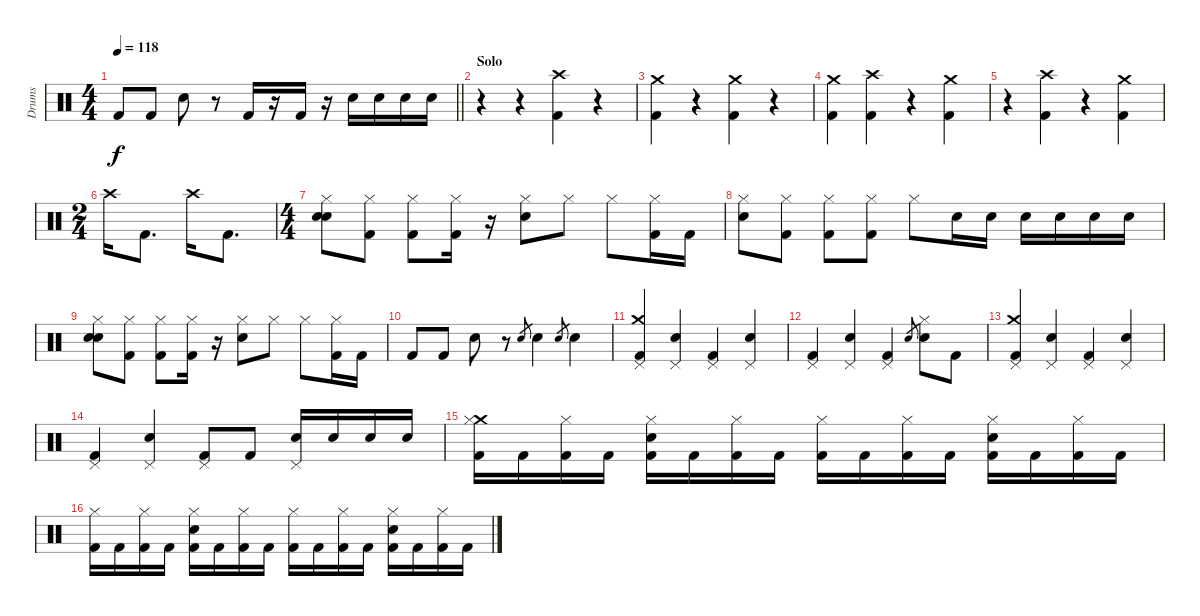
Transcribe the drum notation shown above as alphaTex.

\track ("Drums" "Drums") {instrument percussion}
\staff {score}
\articulation defaults
\ts (4 4)
\tempo 118
\clef neutral
\barLineRight lightlight
\ks c "Kick (hit) 2".8{dy f} "Kick (hit) 2".8 "Snare (hit) 2".8
r.8 "Kick (hit) 2".16 r.16 "Kick (hit) 2".16 r.16 "Snare (hit) 2".16 "Snare (hit) 2".16 "Snare (hit) 2".16 "Snare (hit) 2".16 |
\section ("" "Solo")
r.4 r.4 ("Crash high (hit)" "Kick (hit) 2").4 r.4 |
("Crash medium (hit)" "Kick (hit) 2").4 r.4 ("Crash medium (hit)" "Kick (hit) 2").4 r.4 |
("Crash medium (hit)" "Kick (hit) 2").4 ("Crash high (hit)" "Kick (hit) 2").4 r.4 ("Crash medium (hit)" "Kick (hit) 2").4 |
r.4 ("Crash high (hit)" "Kick (hit) 2").4 r.4 ("Crash medium (hit)" "Kick (hit) 2").4 |
\ts (2 4)
"Crash high (hit)".16 "Kick (hit) 2".8{d} "Crash high (hit)".16 "Kick (hit) 2".8{d} |
\ts (4 4)
("Snare (hit) 2" "Hi-Hat (closed)" "Snare (hit) 2").8 ("Hi-Hat (closed)" "Kick (hit) 2").8 ("Hi-Hat (closed)" "Kick (hit) 2").8 ("Hi-Hat (closed)" "Kick (hit) 2").16 r.16 ("Hi-Hat (closed)" "Snare (hit) 2").8 "Hi-Hat (closed)".8 "Hi-Hat (closed)".8 ("Hi-Hat (closed)" "Kick (hit) 2").16 "Kick (hit) 2".16 |
("Hi-Hat (closed)" "Snare (hit) 2").8 ("Hi-Hat (closed)" "Kick (hit) 2").8 ("Hi-Hat (closed)" "Kick (hit) 2").8 ("Hi-Hat (closed)" "Kick (hit) 2").8 "Hi-Hat (closed)".8 "Snare (hit) 2".16 "Snare (hit) 2".16 "Snare (hit) 2".16 "Snare (hit) 2".16 "Snare (hit) 2".16 "Snare (hit) 2".16 |
("Snare (hit) 2" "Hi-Hat (closed)" "Snare (hit) 2").8 ("Hi-Hat (closed)" "Kick (hit) 2").8 ("Hi-Hat (closed)" "Kick (hit) 2").8 ("Hi-Hat (closed)" "Kick (hit) 2").16 r.16 ("Hi-Hat (closed)" "Snare (hit) 2").8 "Hi-Hat (closed)".8 "Hi-Hat (closed)".8 ("Hi-Hat (closed)" "Kick (hit) 2").16 "Kick (hit) 2".16 |
"Kick (hit) 2".8 "Kick (hit) 2".8 "Snare (hit) 2".8 r.8 "Snare (hit) 2".8{gr} "Snare (hit) 2".4 "Snare (hit) 2".8{gr} "Snare (hit) 2".4 |
("Pedal Hi-Hat (hit)" "Crash medium (hit)" "Kick (hit) 2").4 ("Pedal Hi-Hat (hit)" "Snare (hit) 2").4 ("Pedal Hi-Hat (hit)" "Kick (hit) 2").4 ("Pedal Hi-Hat (hit)" "Snare (hit) 2").4 |
("Pedal Hi-Hat (hit)" "Kick (hit) 2").4 ("Pedal Hi-Hat (hit)" "Snare (hit) 2").4 ("Pedal Hi-Hat (hit)" "Kick (hit) 2").4 "Snare (hit) 2".8{gr} ("Hi-Hat (closed)" "Snare (hit) 2").8 "Kick (hit) 2".8 |
("Pedal Hi-Hat (hit)" "Crash medium (hit)" "Kick (hit) 2").4 ("Pedal Hi-Hat (hit)" "Snare (hit) 2").4 ("Pedal Hi-Hat (hit)" "Kick (hit) 2").4 ("Pedal Hi-Hat (hit)" "Snare (hit) 2").4 |
("Pedal Hi-Hat (hit)" "Kick (hit) 2").4 ("Pedal Hi-Hat (hit)" "Snare (hit) 2").4 ("Pedal Hi-Hat (hit)" "Kick (hit) 2").8 "Kick (hit) 2".8 ("Pedal Hi-Hat (hit)" "Snare (hit) 2").16 "Snare (hit) 2".16 "Snare (hit) 2".16 "Snare (hit) 2".16 |
("Crash medium (hit)" "Hi-Hat (closed)" "Kick (hit) 2").16 "Kick (hit) 2".16 ("Hi-Hat (closed)" "Kick (hit) 2").16 "Kick (hit) 2".16 ("Snare (hit) 2" "Hi-Hat (closed)" "Kick (hit) 2").16 "Kick (hit) 2".16 ("Hi-Hat (closed)" "Kick (hit) 2").16 "Kick (hit) 2".16 ("Hi-Hat (closed)" "Kick (hit) 2").16 "Kick (hit) 2".16 ("Hi-Hat (closed)" "Kick (hit) 2").16 "Kick (hit) 2".16 ("Snare (hit) 2" "Hi-Hat (closed)" "Kick (hit) 2").16 "Kick (hit) 2".16 ("Hi-Hat (closed)" "Kick (hit) 2").16 "Kick (hit) 2".16 |
("Hi-Hat (closed)" "Kick (hit) 2").16 "Kick (hit) 2".16 ("Hi-Hat (closed)" "Kick (hit) 2").16 "Kick (hit) 2".16 ("Snare (hit) 2" "Hi-Hat (closed)" "Kick (hit) 2").16 "Kick (hit) 2".16 ("Hi-Hat (closed)" "Kick (hit) 2").16 "Kick (hit) 2".16 ("Hi-Hat (closed)" "Kick (hit) 2").16 "Kick (hit) 2".16 ("Hi-Hat (closed)" "Kick (hit) 2").16 "Kick (hit) 2".16 ("Snare (hit) 2" "Hi-Hat (closed)" "Kick (hit) 2").16 "Kick (hit) 2".16 ("Hi-Hat (closed)" "Kick (hit) 2").16 "Kick (hit) 2".16
